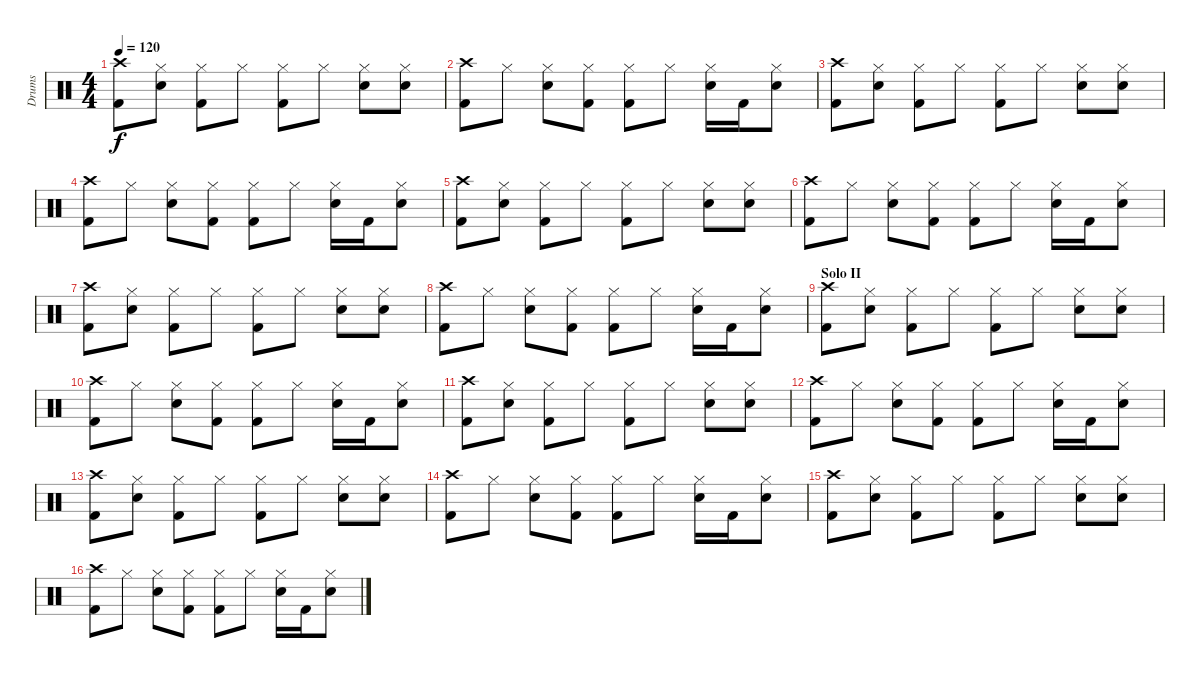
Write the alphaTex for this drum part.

\track ("Drums" "Drums") {instrument percussion}
\staff {score}
\articulation defaults
\ts (4 4)
\tempo 120
\clef neutral
\ks c
("Crash high (hit)" "Kick (hit) 2").8{dy f} ("Hi-Hat (closed)" "Snare (hit) 2").8 ("Hi-Hat (closed)" "Kick (hit) 2").8 "Hi-Hat (closed)".8 ("Hi-Hat (closed)" "Kick (hit) 2").8 "Hi-Hat (closed)".8 ("Hi-Hat (closed)" "Snare (hit) 2").8 ("Hi-Hat (closed)" "Snare (hit) 2").8 |
("Crash high (hit)" "Kick (hit) 2").8 "Hi-Hat (closed)".8 ("Hi-Hat (closed)" "Snare (hit) 2").8 ("Hi-Hat (closed)" "Kick (hit) 2").8 ("Hi-Hat (closed)" "Kick (hit) 2").8 "Hi-Hat (closed)".8 ("Hi-Hat (closed)" "Snare (hit) 2").16 "Kick (hit) 2".16 ("Hi-Hat (closed)" "Snare (hit) 2").8 |
("Crash high (hit)" "Kick (hit) 2").8 ("Hi-Hat (closed)" "Snare (hit) 2").8 ("Hi-Hat (closed)" "Kick (hit) 2").8 "Hi-Hat (closed)".8 ("Hi-Hat (closed)" "Kick (hit) 2").8 "Hi-Hat (closed)".8 ("Hi-Hat (closed)" "Snare (hit) 2").8 ("Hi-Hat (closed)" "Snare (hit) 2").8 |
("Crash high (hit)" "Kick (hit) 2").8 "Hi-Hat (closed)".8 ("Hi-Hat (closed)" "Snare (hit) 2").8 ("Hi-Hat (closed)" "Kick (hit) 2").8 ("Hi-Hat (closed)" "Kick (hit) 2").8 "Hi-Hat (closed)".8 ("Hi-Hat (closed)" "Snare (hit) 2").16 "Kick (hit) 2".16 ("Hi-Hat (closed)" "Snare (hit) 2").8 |
("Crash high (hit)" "Kick (hit) 2").8 ("Hi-Hat (closed)" "Snare (hit) 2").8 ("Hi-Hat (closed)" "Kick (hit) 2").8 "Hi-Hat (closed)".8 ("Hi-Hat (closed)" "Kick (hit) 2").8 "Hi-Hat (closed)".8 ("Hi-Hat (closed)" "Snare (hit) 2").8 ("Hi-Hat (closed)" "Snare (hit) 2").8 |
("Crash high (hit)" "Kick (hit) 2").8 "Hi-Hat (closed)".8 ("Hi-Hat (closed)" "Snare (hit) 2").8 ("Hi-Hat (closed)" "Kick (hit) 2").8 ("Hi-Hat (closed)" "Kick (hit) 2").8 "Hi-Hat (closed)".8 ("Hi-Hat (closed)" "Snare (hit) 2").16 "Kick (hit) 2".16 ("Hi-Hat (closed)" "Snare (hit) 2").8 |
("Crash high (hit)" "Kick (hit) 2").8 ("Hi-Hat (closed)" "Snare (hit) 2").8 ("Hi-Hat (closed)" "Kick (hit) 2").8 "Hi-Hat (closed)".8 ("Hi-Hat (closed)" "Kick (hit) 2").8 "Hi-Hat (closed)".8 ("Hi-Hat (closed)" "Snare (hit) 2").8 ("Hi-Hat (closed)" "Snare (hit) 2").8 |
("Crash high (hit)" "Kick (hit) 2").8 "Hi-Hat (closed)".8 ("Hi-Hat (closed)" "Snare (hit) 2").8 ("Hi-Hat (closed)" "Kick (hit) 2").8 ("Hi-Hat (closed)" "Kick (hit) 2").8 "Hi-Hat (closed)".8 ("Hi-Hat (closed)" "Snare (hit) 2").16 "Kick (hit) 2".16 ("Hi-Hat (closed)" "Snare (hit) 2").8 |
\section ("" "Solo II")
("Crash high (hit)" "Kick (hit) 2").8 ("Hi-Hat (closed)" "Snare (hit) 2").8 ("Hi-Hat (closed)" "Kick (hit) 2").8 "Hi-Hat (closed)".8 ("Hi-Hat (closed)" "Kick (hit) 2").8 "Hi-Hat (closed)".8 ("Hi-Hat (closed)" "Snare (hit) 2").8 ("Hi-Hat (closed)" "Snare (hit) 2").8 |
("Crash high (hit)" "Kick (hit) 2").8 "Hi-Hat (closed)".8 ("Hi-Hat (closed)" "Snare (hit) 2").8 ("Hi-Hat (closed)" "Kick (hit) 2").8 ("Hi-Hat (closed)" "Kick (hit) 2").8 "Hi-Hat (closed)".8 ("Hi-Hat (closed)" "Snare (hit) 2").16 "Kick (hit) 2".16 ("Hi-Hat (closed)" "Snare (hit) 2").8 |
("Crash high (hit)" "Kick (hit) 2").8 ("Hi-Hat (closed)" "Snare (hit) 2").8 ("Hi-Hat (closed)" "Kick (hit) 2").8 "Hi-Hat (closed)".8 ("Hi-Hat (closed)" "Kick (hit) 2").8 "Hi-Hat (closed)".8 ("Hi-Hat (closed)" "Snare (hit) 2").8 ("Hi-Hat (closed)" "Snare (hit) 2").8 |
("Crash high (hit)" "Kick (hit) 2").8 "Hi-Hat (closed)".8 ("Hi-Hat (closed)" "Snare (hit) 2").8 ("Hi-Hat (closed)" "Kick (hit) 2").8 ("Hi-Hat (closed)" "Kick (hit) 2").8 "Hi-Hat (closed)".8 ("Hi-Hat (closed)" "Snare (hit) 2").16 "Kick (hit) 2".16 ("Hi-Hat (closed)" "Snare (hit) 2").8 |
("Crash high (hit)" "Kick (hit) 2").8 ("Hi-Hat (closed)" "Snare (hit) 2").8 ("Hi-Hat (closed)" "Kick (hit) 2").8 "Hi-Hat (closed)".8 ("Hi-Hat (closed)" "Kick (hit) 2").8 "Hi-Hat (closed)".8 ("Hi-Hat (closed)" "Snare (hit) 2").8 ("Hi-Hat (closed)" "Snare (hit) 2").8 |
("Crash high (hit)" "Kick (hit) 2").8 "Hi-Hat (closed)".8 ("Hi-Hat (closed)" "Snare (hit) 2").8 ("Hi-Hat (closed)" "Kick (hit) 2").8 ("Hi-Hat (closed)" "Kick (hit) 2").8 "Hi-Hat (closed)".8 ("Hi-Hat (closed)" "Snare (hit) 2").16 "Kick (hit) 2".16 ("Hi-Hat (closed)" "Snare (hit) 2").8 |
("Crash high (hit)" "Kick (hit) 2").8 ("Hi-Hat (closed)" "Snare (hit) 2").8 ("Hi-Hat (closed)" "Kick (hit) 2").8 "Hi-Hat (closed)".8 ("Hi-Hat (closed)" "Kick (hit) 2").8 "Hi-Hat (closed)".8 ("Hi-Hat (closed)" "Snare (hit) 2").8 ("Hi-Hat (closed)" "Snare (hit) 2").8 |
("Crash high (hit)" "Kick (hit) 2").8 "Hi-Hat (closed)".8 ("Hi-Hat (closed)" "Snare (hit) 2").8 ("Hi-Hat (closed)" "Kick (hit) 2").8 ("Hi-Hat (closed)" "Kick (hit) 2").8 "Hi-Hat (closed)".8 ("Hi-Hat (closed)" "Snare (hit) 2").16 "Kick (hit) 2".16 ("Hi-Hat (closed)" "Snare (hit) 2").8
